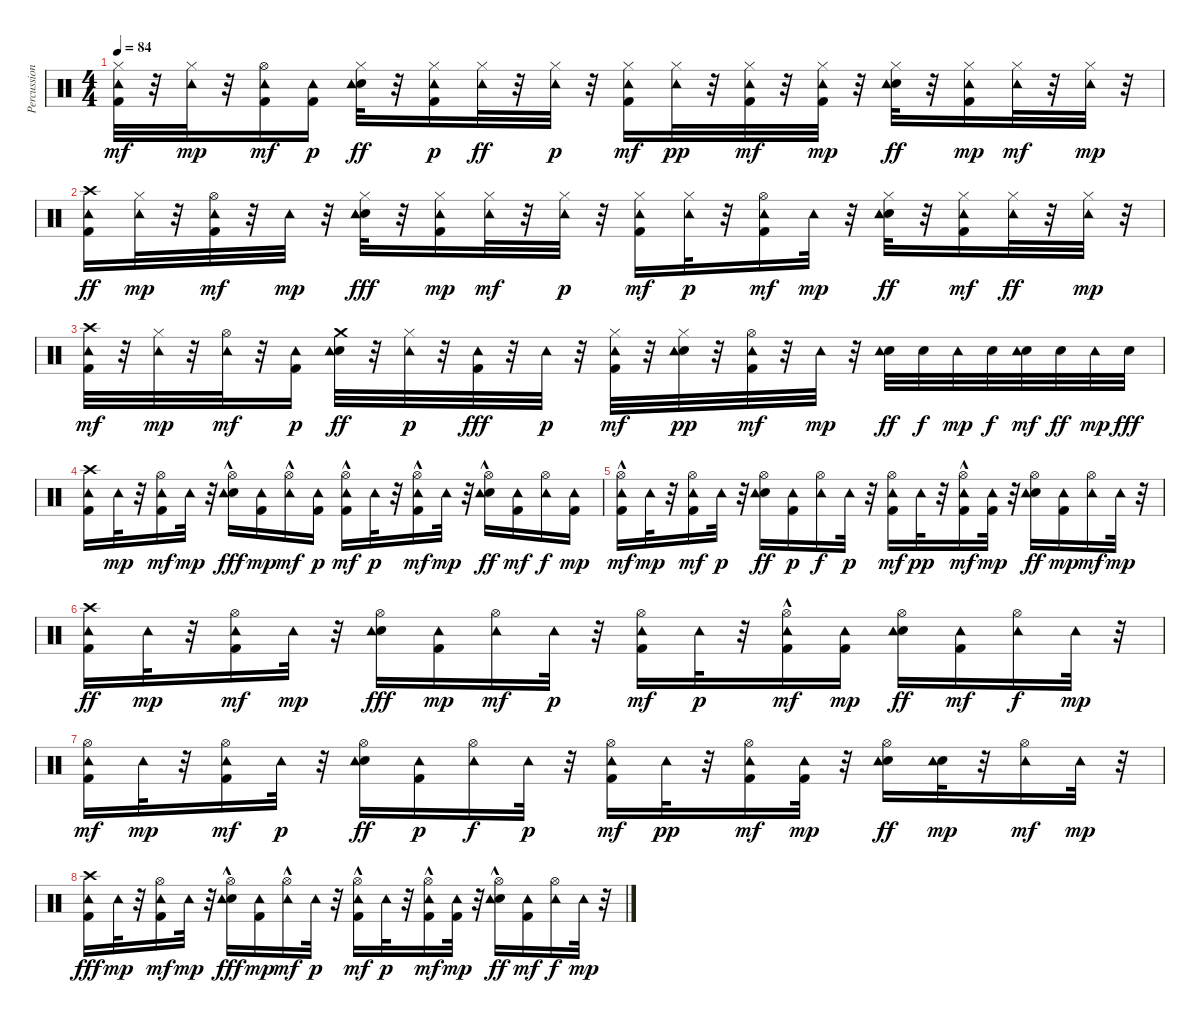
\track ("Percussions" "Percussion") {instrument percussion}
\staff {score}
\articulation defaults
\ts (4 4)
\tempo 84
\clef neutral
\ks c
("Hi-Hat (closed)" "Kick (hit) 2" "Tambourine (hit)").32{dy mf} r.32 ("Hi-Hat (closed)" "Tambourine (hit)").32{dy mp} r.32 ("Hi-Hat (open)" "Kick (hit) 2" "Tambourine (hit)").16{dy mf} ("Kick (hit) 2" "Tambourine (hit)").16{dy p} ("Hi-Hat (closed)" "Snare (hit) 2" "Tambourine (hit)").32{dy ff} r.32 ("Kick (hit) 2" "Hi-Hat (closed)" "Tambourine (hit)").16{dy p} ("Hi-Hat (closed)" "Tambourine (hit)").32{dy ff} r.32 ("Hi-Hat (closed)" "Tambourine (hit)").32{dy p} r.32 ("Kick (hit) 2" "Hi-Hat (closed)" "Tambourine (hit)").16{dy mf} ("Hi-Hat (closed)" "Tambourine (hit)").32{dy pp} r.32 ("Hi-Hat (closed)" "Kick (hit) 2" "Tambourine (hit)").32{dy mf} r.32 ("Hi-Hat (closed)" "Kick (hit) 2" "Tambourine (hit)").32{dy mp} r.32 ("Snare (hit) 2" "Hi-Hat (closed)" "Tambourine (hit)").32{dy ff} r.32 ("Kick (hit) 2" "Hi-Hat (closed)" "Tambourine (hit)").16{dy mp} ("Hi-Hat (closed)" "Tambourine (hit)").32{dy mf} r.32 ("Hi-Hat (closed)" "Tambourine (hit)").32{dy mp} r.32 |
("Crash high (hit)" "Kick (hit) 2" "Tambourine (hit)").16{dy ff} ("Hi-Hat (closed)" "Tambourine (hit)").32{dy mp} r.32 ("Hi-Hat (open)" "Kick (hit) 2" "Tambourine (hit)").32{dy mf} r.32 "Tambourine (hit)".32{dy mp} r.32 ("Snare (hit) 2" "Hi-Hat (closed)" "Tambourine (hit)").32{dy fff} r.32 ("Kick (hit) 2" "Hi-Hat (closed)" "Tambourine (hit)").16{dy mp} ("Hi-Hat (closed)" "Tambourine (hit)").32{dy mf} r.32 ("Hi-Hat (closed)" "Tambourine (hit)").32{dy p} r.32 ("Kick (hit) 2" "Hi-Hat (closed)" "Tambourine (hit)").16{dy mf} ("Hi-Hat (closed)" "Tambourine (hit)").32{dy p} r.32 ("Hi-Hat (open)" "Kick (hit) 2" "Tambourine (hit)").16{dy mf} "Tambourine (hit)".32{dy mp} r.32 ("Hi-Hat (closed)" "Snare (hit) 2" "Tambourine (hit)").32{dy ff} r.32 ("Kick (hit) 2" "Hi-Hat (closed)" "Tambourine (hit)").16{dy mf} ("Hi-Hat (closed)" "Tambourine (hit)").32{dy ff} r.32 ("Hi-Hat (closed)" "Tambourine (hit)").32{dy mp} r.32 |
("Crash high (hit)" "Kick (hit) 2" "Tambourine (hit)").32{dy mf} r.32 ("Hi-Hat (closed)" "Tambourine (hit)").32{dy mp} r.32 ("Hi-Hat (open)" "Tambourine (hit)").32{dy mf} r.32 ("Kick (hit) 2" "Tambourine (hit)").16{dy p} ("Crash medium (hit)" "Snare (hit) 2" "Tambourine (hit)").32{dy ff} r.32 ("Hi-Hat (closed)" "Tambourine (hit)").32{dy p} r.32 ("Kick (hit) 2" "Tambourine (hit)").32{dy fff} r.32 "Tambourine (hit)".32{dy p} r.32 ("Hi-Hat (closed)" "Kick (hit) 2" "Tambourine (hit)").32{dy mf} r.32 ("Snare (hit) 2" "Hi-Hat (closed)" "Tambourine (hit)").32{dy pp} r.32 ("Kick (hit) 2" "Hi-Hat (open)" "Tambourine (hit)").32{dy mf} r.32 "Tambourine (hit)".32{dy mp} r.32 ("Snare (hit) 2" "Tambourine (hit)").32{dy ff} "Snare (hit) 2".32{dy f} "Tambourine (hit)".32{dy mp} "Snare (hit) 2".32{dy f} ("Snare (hit) 2" "Tambourine (hit)").32{dy mf} "Snare (hit) 2".32{dy ff} "Tambourine (hit)".32{dy mp} "Snare (hit) 2".32{dy fff} |
("Kick (hit) 2" "Crash high (hit)" "Tambourine (hit)").16 "Tambourine (hit)".32{dy mp} r.32 ("Hi-Hat (open)" "Kick (hit) 2" "Tambourine (hit)").16{dy mf} "Tambourine (hit)".32{dy mp} r.32 ("Hi-Hat (open)"{hac} "Snare (hit) 2" "Tambourine (hit)").16{dy fff} ("Kick (hit) 2" "Tambourine (hit)").16{dy mp} ("Hi-Hat (open)"{hac} "Tambourine (hit)").16{dy mf} ("Kick (hit) 2" "Tambourine (hit)").16{dy p} ("Hi-Hat (open)"{hac} "Kick (hit) 2" "Tambourine (hit)").16{dy mf} "Tambourine (hit)".32{dy p} r.32 ("Hi-Hat (open)"{hac} "Kick (hit) 2" "Tambourine (hit)").16{dy mf} "Tambourine (hit)".32{dy mp} r.32 ("Hi-Hat (open)"{hac} "Snare (hit) 2" "Tambourine (hit)").16{dy ff} ("Kick (hit) 2" "Tambourine (hit)").16{dy mf} ("Hi-Hat (open)" "Tambourine (hit)").16{dy f} ("Kick (hit) 2" "Tambourine (hit)").16{dy mp} |
("Hi-Hat (open)"{hac} "Kick (hit) 2" "Tambourine (hit)").16{dy mf} "Tambourine (hit)".32{dy mp} r.32 ("Hi-Hat (open)" "Kick (hit) 2" "Tambourine (hit)").16{dy mf} "Tambourine (hit)".32{dy p} r.32 ("Hi-Hat (open)" "Snare (hit) 2" "Tambourine (hit)").16{dy ff} ("Kick (hit) 2" "Tambourine (hit)").16{dy p} ("Hi-Hat (open)" "Tambourine (hit)").16{dy f} "Tambourine (hit)".32{dy p} r.32 ("Kick (hit) 2" "Hi-Hat (open)" "Tambourine (hit)").16{dy mf} "Tambourine (hit)".32{dy pp} r.32 ("Kick (hit) 2" "Hi-Hat (open)"{hac} "Tambourine (hit)").16{dy mf} ("Kick (hit) 2" "Tambourine (hit)").32{dy mp} r.32 ("Hi-Hat (open)" "Snare (hit) 2" "Tambourine (hit)").16{dy ff} ("Kick (hit) 2" "Tambourine (hit)").16{dy mp} ("Hi-Hat (open)" "Tambourine (hit)").16{dy mf} "Tambourine (hit)".32{dy mp} r.32 |
("Kick (hit) 2" "Crash high (hit)" "Tambourine (hit)").16{dy ff} "Tambourine (hit)".32{dy mp} r.32 ("Kick (hit) 2" "Hi-Hat (open)" "Tambourine (hit)").16{dy mf} "Tambourine (hit)".32{dy mp} r.32 ("Hi-Hat (open)" "Snare (hit) 2" "Tambourine (hit)").16{dy fff} ("Kick (hit) 2" "Tambourine (hit)").16{dy mp} ("Hi-Hat (open)" "Tambourine (hit)").16{dy mf} "Tambourine (hit)".32{dy p} r.32 ("Kick (hit) 2" "Hi-Hat (open)" "Tambourine (hit)").16{dy mf} "Tambourine (hit)".32{dy p} r.32 ("Kick (hit) 2" "Hi-Hat (open)"{hac} "Tambourine (hit)").16{dy mf} ("Kick (hit) 2" "Tambourine (hit)").16{dy mp} ("Hi-Hat (open)" "Snare (hit) 2" "Tambourine (hit)").16{dy ff} ("Kick (hit) 2" "Tambourine (hit)").16{dy mf} ("Hi-Hat (open)" "Tambourine (hit)").16{dy f} "Tambourine (hit)".32{dy mp} r.32 |
("Kick (hit) 2" "Hi-Hat (open)" "Tambourine (hit)").16{dy mf} "Tambourine (hit)".32{dy mp} r.32 ("Kick (hit) 2" "Hi-Hat (open)" "Tambourine (hit)").16{dy mf} "Tambourine (hit)".32{dy p} r.32 ("Hi-Hat (open)" "Snare (hit) 2" "Tambourine (hit)").16{dy ff} ("Kick (hit) 2" "Tambourine (hit)").16{dy p} ("Hi-Hat (open)" "Tambourine (hit)").16{dy f} "Tambourine (hit)".32{dy p} r.32 ("Kick (hit) 2" "Hi-Hat (open)" "Tambourine (hit)").16{dy mf} "Tambourine (hit)".32{dy pp} r.32 ("Hi-Hat (open)" "Kick (hit) 2" "Tambourine (hit)").16{dy mf} ("Kick (hit) 2" "Tambourine (hit)").32{dy mp} r.32 ("Hi-Hat (open)" "Snare (hit) 2" "Tambourine (hit)").16{dy ff} ("Snare (hit) 2" "Tambourine (hit)").32{dy mp} r.32 ("Hi-Hat (open)" "Tambourine (hit)").16{dy mf} "Tambourine (hit)".32{dy mp} r.32 |
("Kick (hit) 2" "Crash high (hit)" "Tambourine (hit)").16{dy fff} "Tambourine (hit)".32{dy mp} r.32 ("Hi-Hat (open)" "Kick (hit) 2" "Tambourine (hit)").16{dy mf} "Tambourine (hit)".32{dy mp} r.32 ("Hi-Hat (open)"{hac} "Snare (hit) 2" "Tambourine (hit)").16{dy fff} ("Kick (hit) 2" "Tambourine (hit)").16{dy mp} ("Hi-Hat (open)"{hac} "Tambourine (hit)").16{dy mf} "Tambourine (hit)".32{dy p} r.32 ("Hi-Hat (open)"{hac} "Kick (hit) 2" "Tambourine (hit)").16{dy mf} "Tambourine (hit)".32{dy p} r.32 ("Hi-Hat (open)"{hac} "Kick (hit) 2" "Tambourine (hit)").16{dy mf} ("Kick (hit) 2" "Tambourine (hit)").32{dy mp} r.32 ("Hi-Hat (open)"{hac} "Snare (hit) 2" "Tambourine (hit)").16{dy ff} ("Kick (hit) 2" "Tambourine (hit)").16{dy mf} ("Hi-Hat (open)" "Tambourine (hit)").16{dy f} "Tambourine (hit)".32{dy mp} r.32
